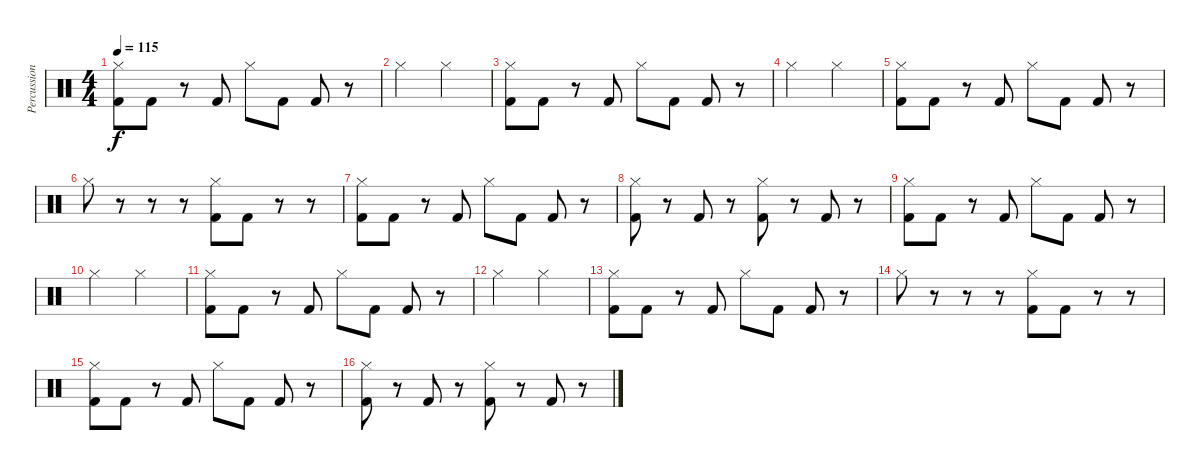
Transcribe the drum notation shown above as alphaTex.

\track ("Percussions" "Percussion") {instrument percussion}
\staff {score}
\articulation defaults
\ts (4 4)
\tempo 115
\clef neutral
\ks c
("Hi-Hat (closed)" "Kick (hit) 2").8{dy f} "Kick (hit) 2".8 r.8 "Kick (hit) 2".8 "Hi-Hat (closed)".8 "Kick (hit) 2".8 "Kick (hit) 2".8 r.8 |
"Hi-Hat (closed)".2 "Hi-Hat (closed)".2 |
("Hi-Hat (closed)" "Kick (hit) 2").8 "Kick (hit) 2".8 r.8 "Kick (hit) 2".8 "Hi-Hat (closed)".8 "Kick (hit) 2".8 "Kick (hit) 2".8 r.8 |
"Hi-Hat (closed)".2 "Hi-Hat (closed)".2 |
("Hi-Hat (closed)" "Kick (hit) 2").8 "Kick (hit) 2".8 r.8 "Kick (hit) 2".8 "Hi-Hat (closed)".8 "Kick (hit) 2".8 "Kick (hit) 2".8 r.8 |
"Hi-Hat (closed)".8 r.8 r.8 r.8 ("Hi-Hat (closed)" "Kick (hit) 2").8 "Kick (hit) 2".8 r.8 r.8 |
("Hi-Hat (closed)" "Kick (hit) 2").8 "Kick (hit) 2".8 r.8 "Kick (hit) 2".8 "Hi-Hat (closed)".8 "Kick (hit) 2".8 "Kick (hit) 2".8 r.8 |
("Hi-Hat (closed)" "Kick (hit) 2").8 r.8 "Kick (hit) 2".8 r.8 ("Hi-Hat (closed)" "Kick (hit) 2").8 r.8 "Kick (hit) 2".8 r.8 |
("Hi-Hat (closed)" "Kick (hit) 2").8 "Kick (hit) 2".8 r.8 "Kick (hit) 2".8 "Hi-Hat (closed)".8 "Kick (hit) 2".8 "Kick (hit) 2".8 r.8 |
"Hi-Hat (closed)".2 "Hi-Hat (closed)".2 |
("Hi-Hat (closed)" "Kick (hit) 2").8 "Kick (hit) 2".8 r.8 "Kick (hit) 2".8 "Hi-Hat (closed)".8 "Kick (hit) 2".8 "Kick (hit) 2".8 r.8 |
"Hi-Hat (closed)".2 "Hi-Hat (closed)".2 |
("Hi-Hat (closed)" "Kick (hit) 2").8 "Kick (hit) 2".8 r.8 "Kick (hit) 2".8 "Hi-Hat (closed)".8 "Kick (hit) 2".8 "Kick (hit) 2".8 r.8 |
"Hi-Hat (closed)".8 r.8 r.8 r.8 ("Hi-Hat (closed)" "Kick (hit) 2").8 "Kick (hit) 2".8 r.8 r.8 |
("Hi-Hat (closed)" "Kick (hit) 2").8 "Kick (hit) 2".8 r.8 "Kick (hit) 2".8 "Hi-Hat (closed)".8 "Kick (hit) 2".8 "Kick (hit) 2".8 r.8 |
("Hi-Hat (closed)" "Kick (hit) 2").8 r.8 "Kick (hit) 2".8 r.8 ("Hi-Hat (closed)" "Kick (hit) 2").8 r.8 "Kick (hit) 2".8 r.8
